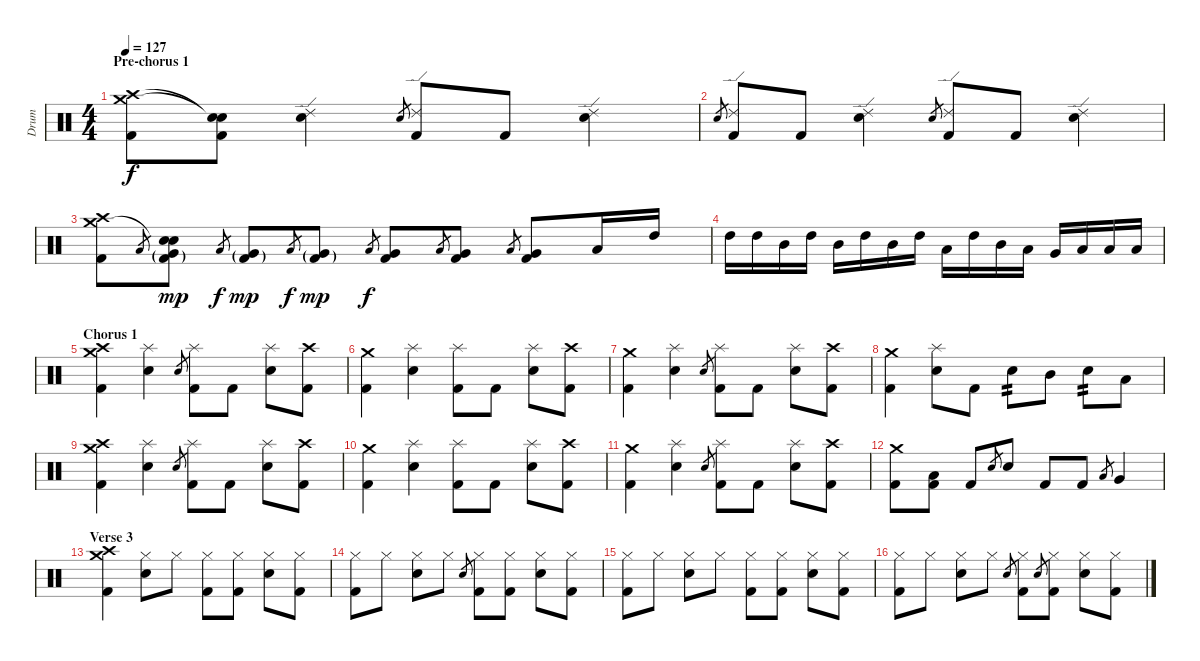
\track ("Drum" "Drum") {instrument percussion}
\staff {score}
\articulation defaults
\ts (4 4)
\section ("" "Pre-chorus 1")
\tempo 127
\clef neutral
\ks c
("Kick (hit) 2" "Crash high (hit)" "Crash medium (hit)").8{dy f} ("Kick (hit) 2" "Snare (hit)"{t} "Snare (hit)"{t}).8 ("Ride (edge) 2" "Electric Snare (hit)").4 "Electric Snare (hit)".8{gr} ("Ride (edge) 2" "Kick (hit) 2").8 "Kick (hit) 2".8 ("Ride (edge) 2" "Electric Snare (hit)").4 |
"Electric Snare (hit)".8{gr} ("Ride (edge) 2" "Kick (hit) 2").8 "Kick (hit) 2".8 ("Ride (edge) 2" "Electric Snare (hit)").4 "Electric Snare (hit)".8{gr} ("Ride (edge) 2" "Kick (hit) 2").8 "Kick (hit) 2".8 ("Ride (edge) 2" "Electric Snare (hit)").4 |
("Kick (hit) 2" "Crash high (hit)" "Crash medium (hit)").8 "Low Floor Tom (hit)".8{gr} ("Very Low Tom (hit)"{g} "Kick (hit) 2"{g} "Snare (hit)"{t} "Snare (hit)").8{dy mp} "Low Floor Tom (hit)".8{gr dy f} ("Very Low Tom (hit)"{g} "Kick (hit) 2"{g}).8{dy mp} "Low Floor Tom (hit)".8{gr dy f} ("Very Low Tom (hit)"{g} "Kick (hit) 2"{g}).8{dy mp} "Low Floor Tom (hit)".8{gr dy f} ("Very Low Tom (hit)" "Kick (hit) 2").8 "Low Floor Tom (hit)".8{gr} ("Very Low Tom (hit)" "Kick (hit) 2").8 "Low Floor Tom (hit)".8{gr} ("Very Low Tom (hit)" "Kick (hit) 2").8 "Low Tom (hit)".16 "High Tom (hit)".16 |
"High Tom (hit)".16 "High Tom (hit)".16 "Mid Tom (hit)".16 "High Tom (hit)".16 "Mid Tom (hit)".16 "High Tom (hit)".16 "Mid Tom (hit)".16 "High Tom (hit)".16 "Low Floor Tom (hit)".16 "High Tom (hit)".16 "Mid Tom (hit)".16 "Low Tom (hit)".16 "Very Low Tom (hit)".16 "Low Tom (hit)".16 "Low Floor Tom (hit)".16 "Low Floor Tom (hit)".16 |
\section ("" "Chorus 1")
("Kick (hit) 2" "Crash high (hit)" "Crash medium (hit)").4 ("Splash (hit)" "Electric Snare (hit)").4 "Electric Snare (hit)".8{gr} ("Splash (hit)" "Kick (hit) 2").8 "Kick (hit) 2".8 ("Splash (hit)" "Electric Snare (hit)").8 ("Kick (hit) 2" "Crash high (hit)").8 |
("Kick (hit) 2" "Crash medium (hit)").4 ("Splash (hit)" "Electric Snare (hit)").4 ("Splash (hit)" "Kick (hit) 2").8 "Kick (hit) 2".8 ("Splash (hit)" "Electric Snare (hit)").8 ("Kick (hit) 2" "Crash high (hit)").8 |
("Kick (hit) 2" "Crash medium (hit)").4 ("Splash (hit)" "Electric Snare (hit)").4 "Electric Snare (hit)".8{gr} ("Splash (hit)" "Kick (hit) 2").8 "Kick (hit) 2".8 ("Splash (hit)" "Electric Snare (hit)").8 ("Kick (hit) 2" "Crash high (hit)").8 |
("Kick (hit) 2" "Crash medium (hit)").4 ("Splash (hit)" "Electric Snare (hit)").8 "Kick (hit) 2".8 "Electric Snare (hit)".8{tp 2} "Mid Tom (hit)".8 "Electric Snare (hit)".8{tp 2} "Low Tom (hit)".8 |
("Kick (hit) 2" "Crash high (hit)" "Crash medium (hit)").4 ("Splash (hit)" "Electric Snare (hit)").4 "Electric Snare (hit)".8{gr} ("Splash (hit)" "Kick (hit) 2").8 "Kick (hit) 2".8 ("Splash (hit)" "Electric Snare (hit)").8 ("Kick (hit) 2" "Crash high (hit)").8 |
("Kick (hit) 2" "Crash medium (hit)").4 ("Splash (hit)" "Electric Snare (hit)").4 ("Splash (hit)" "Kick (hit) 2").8 "Kick (hit) 2".8 ("Splash (hit)" "Electric Snare (hit)").8 ("Kick (hit) 2" "Crash high (hit)").8 |
("Kick (hit) 2" "Crash medium (hit)").4 ("Splash (hit)" "Electric Snare (hit)").4 "Electric Snare (hit)".8{gr} ("Splash (hit)" "Kick (hit) 2").8 "Kick (hit) 2".8 ("Splash (hit)" "Electric Snare (hit)").8 ("Kick (hit) 2" "Crash high (hit)").8 |
("Kick (hit) 2" "Crash medium (hit)").8 ("Low Tom (hit)" "Kick (hit) 2").8 "Kick (hit) 2".8 "Electric Snare (hit)".8{gr} "Electric Snare (hit)".8 "Kick (hit) 2".8 "Kick (hit) 2".8 "Low Floor Tom (hit)".8{gr} "Very Low Tom (hit)".4 |
\section ("" "Verse 3")
("Kick (hit) 2" "Crash high (hit)" "Crash medium (hit)").4 ("Hi-Hat (closed)" "Electric Snare (hit)").8 "Hi-Hat (closed)".8 ("Hi-Hat (closed)" "Kick (hit) 2").8 ("Hi-Hat (closed)" "Kick (hit) 2").8 ("Hi-Hat (closed)" "Electric Snare (hit)").8 ("Hi-Hat (closed)" "Kick (hit) 2").8 |
("Hi-Hat (closed)" "Kick (hit) 2").8 "Hi-Hat (closed)".8 ("Hi-Hat (closed)" "Electric Snare (hit)").8 "Hi-Hat (closed)".8 "Electric Snare (hit)".8{gr} ("Hi-Hat (closed)" "Kick (hit) 2").8 ("Hi-Hat (closed)" "Kick (hit) 2").8 ("Hi-Hat (closed)" "Electric Snare (hit)").8 ("Hi-Hat (closed)" "Kick (hit) 2").8 |
("Hi-Hat (closed)" "Kick (hit) 2").8 "Hi-Hat (closed)".8 ("Hi-Hat (closed)" "Electric Snare (hit)").8 "Hi-Hat (closed)".8 ("Hi-Hat (closed)" "Kick (hit) 2").8 ("Hi-Hat (closed)" "Kick (hit) 2").8 ("Hi-Hat (closed)" "Electric Snare (hit)").8 ("Hi-Hat (closed)" "Kick (hit) 2").8 |
("Hi-Hat (closed)" "Kick (hit) 2").8 "Hi-Hat (closed)".8 ("Hi-Hat (closed)" "Electric Snare (hit)").8 "Hi-Hat (closed)".8 "Electric Snare (hit)".8{gr} ("Hi-Hat (closed)" "Kick (hit) 2").8 "Electric Snare (hit)".8{gr} ("Hi-Hat (closed)" "Kick (hit) 2").8 ("Hi-Hat (closed)" "Electric Snare (hit)").8 ("Hi-Hat (closed)" "Kick (hit) 2").8
